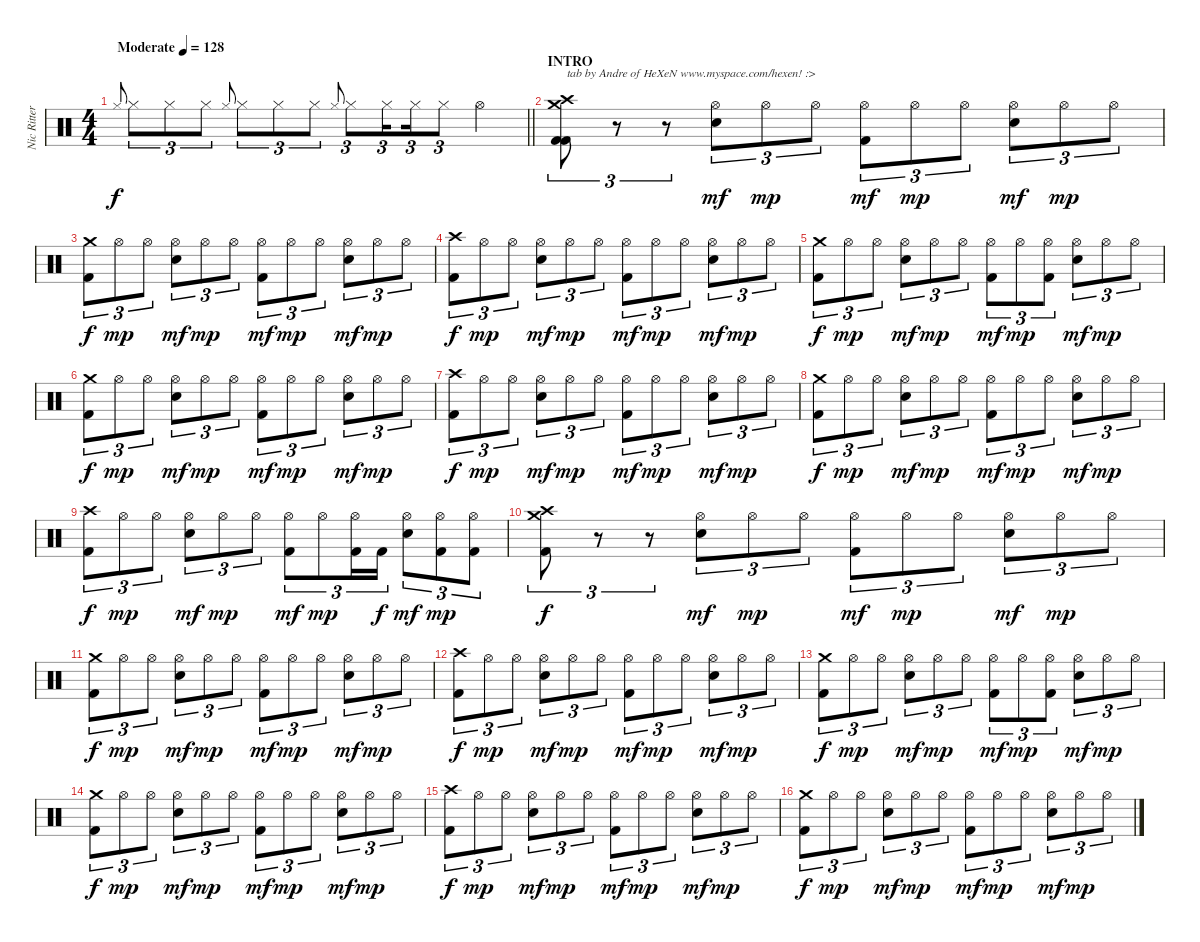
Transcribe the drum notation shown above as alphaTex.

\track ("Nic Ritter" "Nic Ritter") {instrument percussion}
\staff {score}
\articulation defaults
\ts (4 4)
\tempo (128 "Moderate")
\clef neutral
\barLineRight lightlight
\ks c "Hi-Hat (closed)".8{gr onbeat dy f} "Hi-Hat (closed)".8{tu (3 2)} "Hi-Hat (closed)".8{tu (3 2)} "Hi-Hat (closed)".8{tu (3 2)} "Hi-Hat (closed)".8{gr onbeat} "Hi-Hat (closed)".8{tu (3 2)} "Hi-Hat (closed)".8{tu (3 2)} "Hi-Hat (closed)".8{tu (3 2)} "Hi-Hat (closed)".8{gr onbeat} "Hi-Hat (closed)".8{tu (3 2)} "Hi-Hat (closed)".16{tu (3 2) beam splitsecondary} "Hi-Hat (closed)".16{tu (3 2)} "Hi-Hat (closed)".8{tu (3 2)} "Hi-Hat (open)".4
|
\section ("" "INTRO")
("Crash medium (hit)" "Crash high (hit)" "Kick (hit) 2" "Kick (hit) 2").8{tu (3 2) txt "tab by Andre of HeXeN www.myspace.com/hexen! :>"} r.8{tu (3 2)} r.8{tu (3 2)} ("Hi-Hat (open)" "Electric Snare (hit)").8{tu (3 2) dy mf} "Hi-Hat (open)".8{tu (3 2) dy mp} "Hi-Hat (open)".8{tu (3 2)} ("Hi-Hat (open)" "Kick (hit) 2").8{tu (3 2) dy mf} "Hi-Hat (open)".8{tu (3 2) dy mp} "Hi-Hat (open)".8{tu (3 2)} ("Hi-Hat (open)" "Electric Snare (hit)").8{tu (3 2) dy mf} "Hi-Hat (open)".8{tu (3 2) dy mp} "Hi-Hat (open)".8{tu (3 2)} |
("Crash medium (hit)" "Kick (hit) 2").8{tu (3 2) dy f} "Hi-Hat (open)".8{tu (3 2) dy mp} "Hi-Hat (open)".8{tu (3 2)} ("Hi-Hat (open)" "Electric Snare (hit)").8{tu (3 2) dy mf} "Hi-Hat (open)".8{tu (3 2) dy mp} "Hi-Hat (open)".8{tu (3 2)} ("Hi-Hat (open)" "Kick (hit) 2").8{tu (3 2) dy mf} "Hi-Hat (open)".8{tu (3 2) dy mp} "Hi-Hat (open)".8{tu (3 2)} ("Hi-Hat (open)" "Electric Snare (hit)").8{tu (3 2) dy mf} "Hi-Hat (open)".8{tu (3 2) dy mp} "Hi-Hat (open)".8{tu (3 2)} |
("Crash high (hit)" "Kick (hit) 2").8{tu (3 2) dy f} "Hi-Hat (open)".8{tu (3 2) dy mp} "Hi-Hat (open)".8{tu (3 2)} ("Hi-Hat (open)" "Electric Snare (hit)").8{tu (3 2) dy mf} "Hi-Hat (open)".8{tu (3 2) dy mp} "Hi-Hat (open)".8{tu (3 2)} ("Hi-Hat (open)" "Kick (hit) 2").8{tu (3 2) dy mf} "Hi-Hat (open)".8{tu (3 2) dy mp} "Hi-Hat (open)".8{tu (3 2)} ("Hi-Hat (open)" "Electric Snare (hit)").8{tu (3 2) dy mf} "Hi-Hat (open)".8{tu (3 2) dy mp} "Hi-Hat (open)".8{tu (3 2)} |
("Crash medium (hit)" "Kick (hit) 2").8{tu (3 2) dy f} "Hi-Hat (open)".8{tu (3 2) dy mp} "Hi-Hat (open)".8{tu (3 2)} ("Hi-Hat (open)" "Electric Snare (hit)").8{tu (3 2) dy mf} "Hi-Hat (open)".8{tu (3 2) dy mp} "Hi-Hat (open)".8{tu (3 2)} ("Hi-Hat (open)" "Kick (hit) 2").8{tu (3 2) dy mf} "Hi-Hat (open)".8{tu (3 2) dy mp} ("Hi-Hat (open)" "Kick (hit) 2").8{tu (3 2)} ("Hi-Hat (open)" "Electric Snare (hit)").8{tu (3 2) dy mf} "Hi-Hat (open)".8{tu (3 2) dy mp} "Hi-Hat (open)".8{tu (3 2)} |
("Crash medium (hit)" "Kick (hit) 2").8{tu (3 2) dy f} "Hi-Hat (open)".8{tu (3 2) dy mp} "Hi-Hat (open)".8{tu (3 2)} ("Hi-Hat (open)" "Electric Snare (hit)").8{tu (3 2) dy mf} "Hi-Hat (open)".8{tu (3 2) dy mp} "Hi-Hat (open)".8{tu (3 2)} ("Hi-Hat (open)" "Kick (hit) 2").8{tu (3 2) dy mf} "Hi-Hat (open)".8{tu (3 2) dy mp} "Hi-Hat (open)".8{tu (3 2)} ("Hi-Hat (open)" "Electric Snare (hit)").8{tu (3 2) dy mf} "Hi-Hat (open)".8{tu (3 2) dy mp} "Hi-Hat (open)".8{tu (3 2)} |
("Crash high (hit)" "Kick (hit) 2").8{tu (3 2) dy f} "Hi-Hat (open)".8{tu (3 2) dy mp} "Hi-Hat (open)".8{tu (3 2)} ("Hi-Hat (open)" "Electric Snare (hit)").8{tu (3 2) dy mf} "Hi-Hat (open)".8{tu (3 2) dy mp} "Hi-Hat (open)".8{tu (3 2)} ("Hi-Hat (open)" "Kick (hit) 2").8{tu (3 2) dy mf} "Hi-Hat (open)".8{tu (3 2) dy mp} "Hi-Hat (open)".8{tu (3 2)} ("Hi-Hat (open)" "Electric Snare (hit)").8{tu (3 2) dy mf} "Hi-Hat (open)".8{tu (3 2) dy mp} "Hi-Hat (open)".8{tu (3 2)} |
("Crash medium (hit)" "Kick (hit) 2").8{tu (3 2) dy f} "Hi-Hat (open)".8{tu (3 2) dy mp} "Hi-Hat (open)".8{tu (3 2)} ("Hi-Hat (open)" "Electric Snare (hit)").8{tu (3 2) dy mf} "Hi-Hat (open)".8{tu (3 2) dy mp} "Hi-Hat (open)".8{tu (3 2)} ("Hi-Hat (open)" "Kick (hit) 2").8{tu (3 2) dy mf} "Hi-Hat (open)".8{tu (3 2) dy mp} "Hi-Hat (open)".8{tu (3 2)} ("Hi-Hat (open)" "Electric Snare (hit)").8{tu (3 2) dy mf} "Hi-Hat (open)".8{tu (3 2) dy mp} "Hi-Hat (open)".8{tu (3 2)} |
("Crash high (hit)" "Kick (hit) 2").8{tu (3 2) dy f} "Hi-Hat (open)".8{tu (3 2) dy mp} "Hi-Hat (open)".8{tu (3 2)} ("Hi-Hat (open)" "Electric Snare (hit)").8{tu (3 2) dy mf} "Hi-Hat (open)".8{tu (3 2) dy mp} "Hi-Hat (open)".8{tu (3 2)} ("Hi-Hat (open)" "Kick (hit) 2").8{tu (3 2) dy mf} "Hi-Hat (open)".8{tu (3 2) dy mp} ("Hi-Hat (open)" "Kick (hit) 2").16{tu (3 2)} "Kick (hit) 2".16{tu (3 2) dy f} ("Hi-Hat (open)" "Electric Snare (hit)").8{tu (3 2) dy mf} ("Hi-Hat (open)" "Kick (hit) 2").8{tu (3 2) dy mp} ("Hi-Hat (open)" "Kick (hit) 2").8{tu (3 2)} |
("Crash medium (hit)" "Crash high (hit)" "Kick (hit) 2").8{tu (3 2) dy f} r.8{tu (3 2)} r.8{tu (3 2)} ("Hi-Hat (open)" "Electric Snare (hit)").8{tu (3 2) dy mf} "Hi-Hat (open)".8{tu (3 2) dy mp} "Hi-Hat (open)".8{tu (3 2)} ("Hi-Hat (open)" "Kick (hit) 2").8{tu (3 2) dy mf} "Hi-Hat (open)".8{tu (3 2) dy mp} "Hi-Hat (open)".8{tu (3 2)} ("Hi-Hat (open)" "Electric Snare (hit)").8{tu (3 2) dy mf} "Hi-Hat (open)".8{tu (3 2) dy mp} "Hi-Hat (open)".8{tu (3 2)} |
("Crash medium (hit)" "Kick (hit) 2").8{tu (3 2) dy f} "Hi-Hat (open)".8{tu (3 2) dy mp} "Hi-Hat (open)".8{tu (3 2)} ("Hi-Hat (open)" "Electric Snare (hit)").8{tu (3 2) dy mf} "Hi-Hat (open)".8{tu (3 2) dy mp} "Hi-Hat (open)".8{tu (3 2)} ("Hi-Hat (open)" "Kick (hit) 2").8{tu (3 2) dy mf} "Hi-Hat (open)".8{tu (3 2) dy mp} "Hi-Hat (open)".8{tu (3 2)} ("Hi-Hat (open)" "Electric Snare (hit)").8{tu (3 2) dy mf} "Hi-Hat (open)".8{tu (3 2) dy mp} "Hi-Hat (open)".8{tu (3 2)} |
("Crash high (hit)" "Kick (hit) 2").8{tu (3 2) dy f} "Hi-Hat (open)".8{tu (3 2) dy mp} "Hi-Hat (open)".8{tu (3 2)} ("Hi-Hat (open)" "Electric Snare (hit)").8{tu (3 2) dy mf} "Hi-Hat (open)".8{tu (3 2) dy mp} "Hi-Hat (open)".8{tu (3 2)} ("Hi-Hat (open)" "Kick (hit) 2").8{tu (3 2) dy mf} "Hi-Hat (open)".8{tu (3 2) dy mp} "Hi-Hat (open)".8{tu (3 2)} ("Hi-Hat (open)" "Electric Snare (hit)").8{tu (3 2) dy mf} "Hi-Hat (open)".8{tu (3 2) dy mp} "Hi-Hat (open)".8{tu (3 2)} |
("Crash medium (hit)" "Kick (hit) 2").8{tu (3 2) dy f} "Hi-Hat (open)".8{tu (3 2) dy mp} "Hi-Hat (open)".8{tu (3 2)} ("Hi-Hat (open)" "Electric Snare (hit)").8{tu (3 2) dy mf} "Hi-Hat (open)".8{tu (3 2) dy mp} "Hi-Hat (open)".8{tu (3 2)} ("Hi-Hat (open)" "Kick (hit) 2").8{tu (3 2) dy mf} "Hi-Hat (open)".8{tu (3 2) dy mp} ("Hi-Hat (open)" "Kick (hit) 2").8{tu (3 2)} ("Hi-Hat (open)" "Electric Snare (hit)").8{tu (3 2) dy mf} "Hi-Hat (open)".8{tu (3 2) dy mp} "Hi-Hat (open)".8{tu (3 2)} |
("Crash medium (hit)" "Kick (hit) 2").8{tu (3 2) dy f} "Hi-Hat (open)".8{tu (3 2) dy mp} "Hi-Hat (open)".8{tu (3 2)} ("Hi-Hat (open)" "Electric Snare (hit)").8{tu (3 2) dy mf} "Hi-Hat (open)".8{tu (3 2) dy mp} "Hi-Hat (open)".8{tu (3 2)} ("Hi-Hat (open)" "Kick (hit) 2").8{tu (3 2) dy mf} "Hi-Hat (open)".8{tu (3 2) dy mp} "Hi-Hat (open)".8{tu (3 2)} ("Hi-Hat (open)" "Electric Snare (hit)").8{tu (3 2) dy mf} "Hi-Hat (open)".8{tu (3 2) dy mp} "Hi-Hat (open)".8{tu (3 2)} |
("Crash high (hit)" "Kick (hit) 2").8{tu (3 2) dy f} "Hi-Hat (open)".8{tu (3 2) dy mp} "Hi-Hat (open)".8{tu (3 2)} ("Hi-Hat (open)" "Electric Snare (hit)").8{tu (3 2) dy mf} "Hi-Hat (open)".8{tu (3 2) dy mp} "Hi-Hat (open)".8{tu (3 2)} ("Hi-Hat (open)" "Kick (hit) 2").8{tu (3 2) dy mf} "Hi-Hat (open)".8{tu (3 2) dy mp} "Hi-Hat (open)".8{tu (3 2)} ("Hi-Hat (open)" "Electric Snare (hit)").8{tu (3 2) dy mf} "Hi-Hat (open)".8{tu (3 2) dy mp} "Hi-Hat (open)".8{tu (3 2)} |
("Crash medium (hit)" "Kick (hit) 2").8{tu (3 2) dy f} "Hi-Hat (open)".8{tu (3 2) dy mp} "Hi-Hat (open)".8{tu (3 2)} ("Hi-Hat (open)" "Electric Snare (hit)").8{tu (3 2) dy mf} "Hi-Hat (open)".8{tu (3 2) dy mp} "Hi-Hat (open)".8{tu (3 2)} ("Hi-Hat (open)" "Kick (hit) 2").8{tu (3 2) dy mf} "Hi-Hat (open)".8{tu (3 2) dy mp} "Hi-Hat (open)".8{tu (3 2)} ("Hi-Hat (open)" "Electric Snare (hit)").8{tu (3 2) dy mf} "Hi-Hat (open)".8{tu (3 2) dy mp} "Hi-Hat (open)".8{tu (3 2)}
